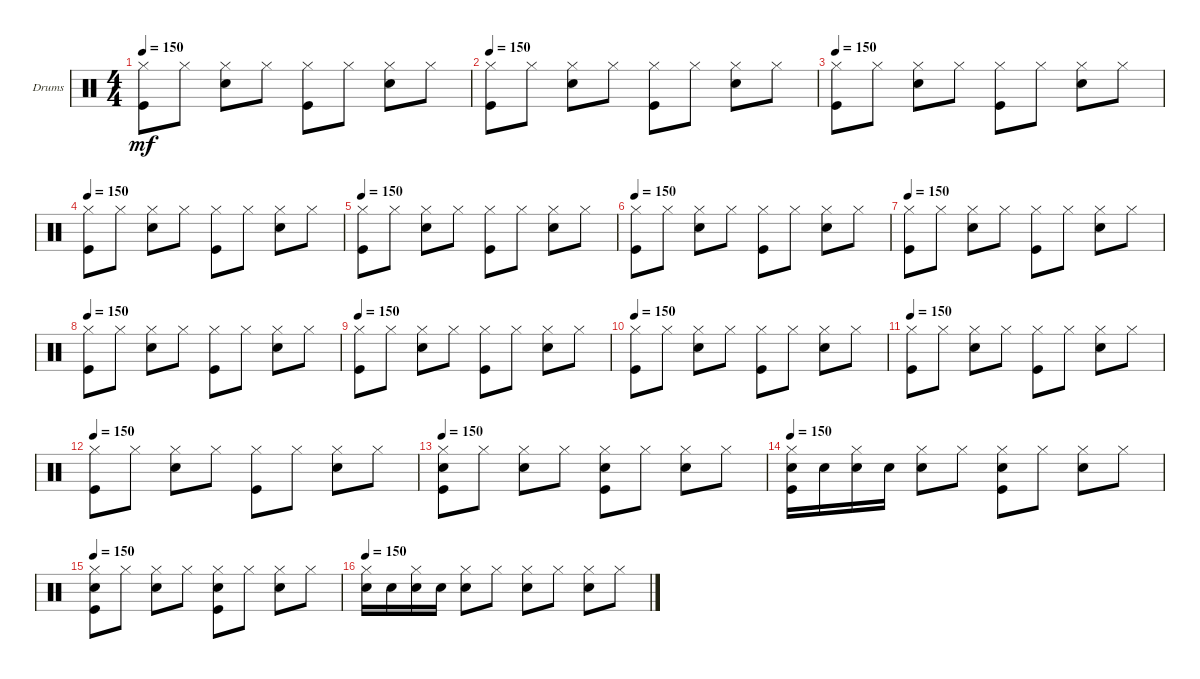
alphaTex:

\bracketExtendMode groupsimilarinstruments
\firstSystemTrackNameOrientation horizontal
\otherSystemsTrackNameOrientation horizontal
\track ("Drums" "Drums") {instrument percussion}
\staff {score}
\articulation defaults
\ts (4 4)
\tempo 150
\clef neutral
\ks c
("Kick (hit)" "Hi-Hat (closed)").8{dy mf} "Hi-Hat (closed)".8 ("Snare (hit) 2" "Hi-Hat (closed)").8 "Hi-Hat (closed)".8 ("Kick (hit)" "Hi-Hat (closed)").8 "Hi-Hat (closed)".8 ("Snare (hit) 2" "Hi-Hat (closed)").8 "Hi-Hat (closed)".8 |
\tempo 150
("Kick (hit)" "Hi-Hat (closed)").8 "Hi-Hat (closed)".8 ("Snare (hit) 2" "Hi-Hat (closed)").8 "Hi-Hat (closed)".8 ("Kick (hit)" "Hi-Hat (closed)").8 "Hi-Hat (closed)".8 ("Snare (hit) 2" "Hi-Hat (closed)").8 "Hi-Hat (closed)".8 |
\tempo 150
("Kick (hit)" "Hi-Hat (closed)").8 "Hi-Hat (closed)".8 ("Snare (hit) 2" "Hi-Hat (closed)").8 "Hi-Hat (closed)".8 ("Kick (hit)" "Hi-Hat (closed)").8 "Hi-Hat (closed)".8 ("Snare (hit) 2" "Hi-Hat (closed)").8 "Hi-Hat (closed)".8 |
\tempo 150
("Kick (hit)" "Hi-Hat (closed)").8 "Hi-Hat (closed)".8 ("Snare (hit) 2" "Hi-Hat (closed)").8 "Hi-Hat (closed)".8 ("Kick (hit)" "Hi-Hat (closed)").8 "Hi-Hat (closed)".8 ("Snare (hit) 2" "Hi-Hat (closed)").8 "Hi-Hat (closed)".8 |
\tempo 150
("Kick (hit)" "Hi-Hat (closed)").8 "Hi-Hat (closed)".8 ("Snare (hit) 2" "Hi-Hat (closed)").8 "Hi-Hat (closed)".8 ("Kick (hit)" "Hi-Hat (closed)").8 "Hi-Hat (closed)".8 ("Snare (hit) 2" "Hi-Hat (closed)").8 "Hi-Hat (closed)".8 |
\tempo 150
("Kick (hit)" "Hi-Hat (closed)").8 "Hi-Hat (closed)".8 ("Snare (hit) 2" "Hi-Hat (closed)").8 "Hi-Hat (closed)".8 ("Kick (hit)" "Hi-Hat (closed)").8 "Hi-Hat (closed)".8 ("Snare (hit) 2" "Hi-Hat (closed)").8 "Hi-Hat (closed)".8 |
\tempo 150
("Kick (hit)" "Hi-Hat (closed)").8 "Hi-Hat (closed)".8 ("Snare (hit) 2" "Hi-Hat (closed)").8 "Hi-Hat (closed)".8 ("Kick (hit)" "Hi-Hat (closed)").8 "Hi-Hat (closed)".8 ("Snare (hit) 2" "Hi-Hat (closed)").8 "Hi-Hat (closed)".8 |
\tempo 150
("Kick (hit)" "Hi-Hat (closed)").8 "Hi-Hat (closed)".8 ("Snare (hit) 2" "Hi-Hat (closed)").8 "Hi-Hat (closed)".8 ("Kick (hit)" "Hi-Hat (closed)").8 "Hi-Hat (closed)".8 ("Snare (hit) 2" "Hi-Hat (closed)").8 "Hi-Hat (closed)".8 |
\tempo 150
("Kick (hit)" "Hi-Hat (closed)").8 "Hi-Hat (closed)".8 ("Snare (hit) 2" "Hi-Hat (closed)").8 "Hi-Hat (closed)".8 ("Kick (hit)" "Hi-Hat (closed)").8 "Hi-Hat (closed)".8 ("Snare (hit) 2" "Hi-Hat (closed)").8 "Hi-Hat (closed)".8 |
\tempo 150
("Kick (hit)" "Hi-Hat (closed)").8 "Hi-Hat (closed)".8 ("Snare (hit) 2" "Hi-Hat (closed)").8 "Hi-Hat (closed)".8 ("Kick (hit)" "Hi-Hat (closed)").8 "Hi-Hat (closed)".8 ("Snare (hit) 2" "Hi-Hat (closed)").8 "Hi-Hat (closed)".8 |
\tempo 150
("Kick (hit)" "Hi-Hat (closed)").8 "Hi-Hat (closed)".8 ("Snare (hit) 2" "Hi-Hat (closed)").8 "Hi-Hat (closed)".8 ("Kick (hit)" "Hi-Hat (closed)").8 "Hi-Hat (closed)".8 ("Snare (hit) 2" "Hi-Hat (closed)").8 "Hi-Hat (closed)".8 |
\tempo 150
("Kick (hit)" "Hi-Hat (closed)").8 "Hi-Hat (closed)".8 ("Snare (hit) 2" "Hi-Hat (closed)").8 "Hi-Hat (closed)".8 ("Kick (hit)" "Hi-Hat (closed)").8 "Hi-Hat (closed)".8 ("Snare (hit) 2" "Hi-Hat (closed)").8 "Hi-Hat (closed)".8 |
\tempo 150
("Kick (hit)" "Snare (hit) 2" "Hi-Hat (closed)").8 "Hi-Hat (closed)".8 ("Snare (hit) 2" "Hi-Hat (closed)").8 "Hi-Hat (closed)".8 ("Kick (hit)" "Snare (hit) 2" "Hi-Hat (closed)").8 "Hi-Hat (closed)".8 ("Snare (hit) 2" "Hi-Hat (closed)").8 "Hi-Hat (closed)".8 |
\tempo 150
("Snare (hit) 2" "Kick (hit)" "Hi-Hat (closed)").16 "Snare (hit) 2".16 ("Snare (hit) 2" "Hi-Hat (closed)").16 "Snare (hit) 2".16 ("Snare (hit) 2" "Hi-Hat (closed)").8 "Hi-Hat (closed)".8 ("Snare (hit) 2" "Kick (hit)" "Hi-Hat (closed)").8 "Hi-Hat (closed)".8 ("Snare (hit) 2" "Hi-Hat (closed)").8 "Hi-Hat (closed)".8 |
\tempo 150
("Snare (hit) 2" "Kick (hit)" "Hi-Hat (closed)").8 "Hi-Hat (closed)".8 ("Snare (hit) 2" "Hi-Hat (closed)").8 "Hi-Hat (closed)".8 ("Snare (hit) 2" "Kick (hit)" "Hi-Hat (closed)").8 "Hi-Hat (closed)".8 ("Snare (hit) 2" "Hi-Hat (closed)").8 "Hi-Hat (closed)".8 |
\tempo 150
("Snare (hit) 2" "Hi-Hat (closed)").16 "Snare (hit) 2".16 ("Snare (hit) 2" "Hi-Hat (closed)").16 "Snare (hit) 2".16 ("Snare (hit) 2" "Hi-Hat (closed)").8 "Hi-Hat (closed)".8 ("Snare (hit) 2" "Hi-Hat (closed)").8 "Hi-Hat (closed)".8 ("Snare (hit) 2" "Hi-Hat (closed)").8 "Hi-Hat (closed)".8
